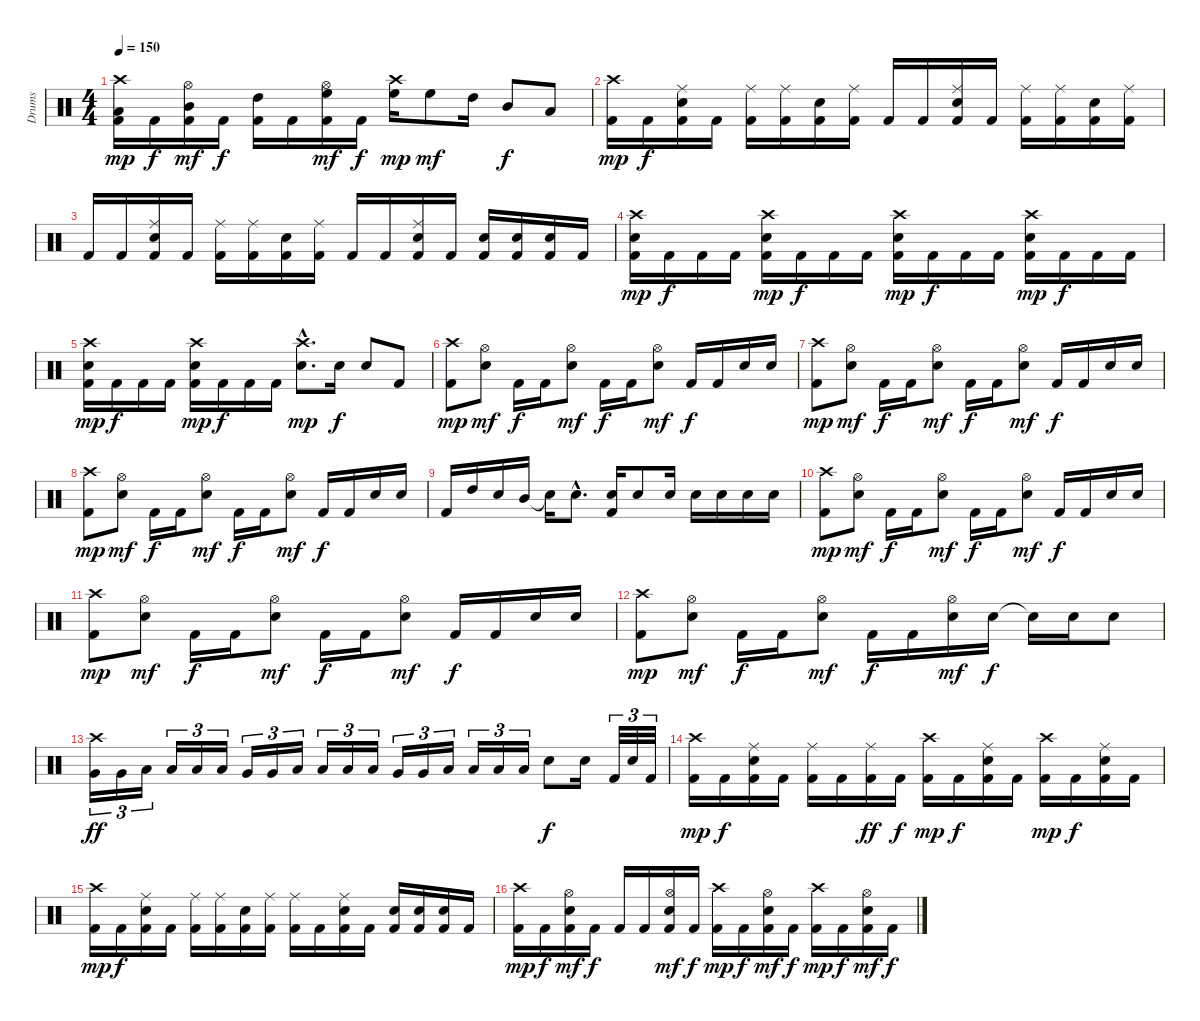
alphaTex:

\track ("Drums" "Drums") {instrument percussion}
\staff {score}
\articulation defaults
\ts (4 4)
\tempo 150
\clef neutral
\ks c
("Crash high (hit)" "Low Tom (hit)" "Kick (hit) 2").16{dy mp} "Kick (hit) 2".16{dy f} ("Hi-Hat (open)" "Mid Tom (hit)" "Kick (hit) 2").16{dy mf} "Kick (hit) 2".16{dy f} ("High Tom (hit)" "Kick (hit) 2").16 "Kick (hit) 2".16 ("Hi-Hat (open)" "High Floor Tom (hit)" "Kick (hit) 2").16{dy mf} "Kick (hit) 2".16{dy f} ("Crash high (hit)" "High Floor Tom (hit)").16{dy mp} "High Floor Tom (hit)".8{dy mf} "High Tom (hit)".16 "Mid Tom (hit)".8{dy f} "Low Tom (hit)".8 |
("Crash high (hit)" "Kick (hit) 2").16{dy mp} "Kick (hit) 2".16{dy f} ("Ride (middle)" "Electric Snare (hit)" "Kick (hit) 2").16 "Kick (hit) 2".16 ("Ride (middle)" "Kick (hit) 2").16 ("Ride (middle)" "Kick (hit) 2").16 ("Electric Snare (hit)" "Kick (hit) 2").16 ("Ride (middle)" "Kick (hit) 2").16 "Kick (hit) 2".16 "Kick (hit) 2".16 ("Ride (middle)" "Electric Snare (hit)" "Kick (hit) 2").16 "Kick (hit) 2".16 ("Ride (middle)" "Kick (hit) 2").16 ("Ride (middle)" "Kick (hit) 2").16 ("Electric Snare (hit)" "Kick (hit) 2").16 ("Ride (middle)" "Kick (hit) 2").16 |
"Kick (hit) 2".16 "Kick (hit) 2".16 ("Ride (middle)" "Electric Snare (hit)" "Kick (hit) 2").16 "Kick (hit) 2".16 ("Ride (middle)" "Kick (hit) 2").16 ("Ride (middle)" "Kick (hit) 2").16 ("Electric Snare (hit)" "Kick (hit) 2").16 ("Ride (middle)" "Kick (hit) 2").16 "Kick (hit) 2".16 "Kick (hit) 2".16 ("Ride (middle)" "Electric Snare (hit)" "Kick (hit) 2").16 "Kick (hit) 2".16 ("Electric Snare (hit)" "Kick (hit) 2").16 ("Electric Snare (hit)" "Kick (hit) 2").16 ("Electric Snare (hit)" "Kick (hit) 2").16 "Kick (hit) 2".16 |
("Crash high (hit)" "Electric Snare (hit)" "Kick (hit) 2").16{dy mp} "Kick (hit) 2".16{dy f} "Kick (hit) 2".16 "Kick (hit) 2".16 ("Crash high (hit)" "Electric Snare (hit)" "Kick (hit) 2").16{dy mp} "Kick (hit) 2".16{dy f} "Kick (hit) 2".16 "Kick (hit) 2".16 ("Crash high (hit)" "Electric Snare (hit)" "Kick (hit) 2").16{dy mp} "Kick (hit) 2".16{dy f} "Kick (hit) 2".16 "Kick (hit) 2".16 ("Crash high (hit)" "Electric Snare (hit)" "Kick (hit) 2").16{dy mp} "Kick (hit) 2".16{dy f} "Kick (hit) 2".16 "Kick (hit) 2".16 |
("Crash high (hit)" "Electric Snare (hit)" "Kick (hit) 2").16{dy mp} "Kick (hit) 2".16{dy f} "Kick (hit) 2".16 "Kick (hit) 2".16 ("Crash high (hit)" "Electric Snare (hit)" "Kick (hit) 2").16{dy mp} "Kick (hit) 2".16{dy f} "Kick (hit) 2".16 "Kick (hit) 2".16 ("Crash high (hit)"{hac} "Electric Snare (hit)"{hac}).8{d dy mp} "Electric Snare (hit)".16{dy f} "Electric Snare (hit)".8 "Kick (hit) 2".8 |
("Crash high (hit)" "Kick (hit) 2").8{dy mp} ("Hi-Hat (open)" "Electric Snare (hit)").8{dy mf} "Kick (hit) 2".16{dy f} "Kick (hit) 2".16 ("Hi-Hat (open)" "Electric Snare (hit)").8{dy mf} "Kick (hit) 2".16{dy f} "Kick (hit) 2".16 ("Hi-Hat (open)" "Electric Snare (hit)").8{dy mf} "Kick (hit) 2".16{dy f} "Kick (hit) 2".16 "Electric Snare (hit)".16 "Electric Snare (hit)".16 |
("Crash high (hit)" "Kick (hit) 2").8{dy mp} ("Hi-Hat (open)" "Electric Snare (hit)").8{dy mf} "Kick (hit) 2".16{dy f} "Kick (hit) 2".16 ("Hi-Hat (open)" "Electric Snare (hit)").8{dy mf} "Kick (hit) 2".16{dy f} "Kick (hit) 2".16 ("Hi-Hat (open)" "Electric Snare (hit)").8{dy mf} "Kick (hit) 2".16{dy f} "Kick (hit) 2".16 "Electric Snare (hit)".16 "Electric Snare (hit)".16 |
("Crash high (hit)" "Kick (hit) 2").8{dy mp} ("Hi-Hat (open)" "Electric Snare (hit)").8{dy mf} "Kick (hit) 2".16{dy f} "Kick (hit) 2".16 ("Hi-Hat (open)" "Electric Snare (hit)").8{dy mf} "Kick (hit) 2".16{dy f} "Kick (hit) 2".16 ("Hi-Hat (open)" "Electric Snare (hit)").8{dy mf} "Kick (hit) 2".16{dy f} "Kick (hit) 2".16 "Electric Snare (hit)".16 "Electric Snare (hit)".16 |
"Kick (hit) 2".16 "High Tom (hit)".16 "Electric Snare (hit)".16 "Mid Tom (hit)".16 "Snare (hit)"{t}.16 "Electric Snare (hit)"{hac}.8{d} ("Electric Snare (hit)" "Kick (hit) 2").16 "Electric Snare (hit)".8 "Electric Snare (hit)".16 "Electric Snare (hit)".16 "Electric Snare (hit)".16 "Electric Snare (hit)".16 "Electric Snare (hit)".16 |
("Crash high (hit)" "Kick (hit) 2").8{dy mp} ("Hi-Hat (open)" "Electric Snare (hit)").8{dy mf} "Kick (hit) 2".16{dy f} "Kick (hit) 2".16 ("Hi-Hat (open)" "Electric Snare (hit)").8{dy mf} "Kick (hit) 2".16{dy f} "Kick (hit) 2".16 ("Hi-Hat (open)" "Electric Snare (hit)").8{dy mf} "Kick (hit) 2".16{dy f} "Kick (hit) 2".16 "Electric Snare (hit)".16 "Electric Snare (hit)".16 |
("Crash high (hit)" "Kick (hit) 2").8{dy mp} ("Hi-Hat (open)" "Electric Snare (hit)").8{dy mf} "Kick (hit) 2".16{dy f} "Kick (hit) 2".16 ("Hi-Hat (open)" "Electric Snare (hit)").8{dy mf} "Kick (hit) 2".16{dy f} "Kick (hit) 2".16 ("Hi-Hat (open)" "Electric Snare (hit)").8{dy mf} "Kick (hit) 2".16{dy f} "Kick (hit) 2".16 "Electric Snare (hit)".16 "Electric Snare (hit)".16 |
("Crash high (hit)" "Kick (hit) 2").8{dy mp} ("Hi-Hat (open)" "Electric Snare (hit)").8{dy mf} "Kick (hit) 2".16{dy f} "Kick (hit) 2".16 ("Hi-Hat (open)" "Electric Snare (hit)").8{dy mf} "Kick (hit) 2".16{dy f} "Kick (hit) 2".16 ("Hi-Hat (open)" "Electric Snare (hit)").16{dy mf} "Electric Snare (hit)".16{dy f} "Snare (hit)"{t}.16 "Electric Snare (hit)".16 "Electric Snare (hit)".8 |
("Crash high (hit)" "Very Low Tom (hit)").16{tu (3 2) dy ff} "Very Low Tom (hit)".16{tu (3 2)} "Low Floor Tom (hit)".16{tu (3 2)} "Low Floor Tom (hit)".16{tu (3 2)} "Low Floor Tom (hit)".16{tu (3 2)} "Low Floor Tom (hit)".16{tu (3 2)} "Very Low Tom (hit)".16{tu (3 2)} "Very Low Tom (hit)".16{tu (3 2)} "Low Floor Tom (hit)".16{tu (3 2)} "Low Floor Tom (hit)".16{tu (3 2)} "Low Floor Tom (hit)".16{tu (3 2)} "Low Floor Tom (hit)".16{tu (3 2)} "Very Low Tom (hit)".16{tu (3 2)} "Very Low Tom (hit)".16{tu (3 2)} "Low Floor Tom (hit)".16{tu (3 2)} "Low Floor Tom (hit)".16{tu (3 2)} "Low Floor Tom (hit)".16{tu (3 2)} "Low Floor Tom (hit)".16{tu (3 2)} "Electric Snare (hit)".8{dy f} "Electric Snare (hit)".16 "Kick (hit) 2".32{tu (3 2)} "Electric Snare (hit)".32{tu (3 2)} "Kick (hit) 2".32{tu (3 2)} |
("Crash high (hit)" "Kick (hit) 2").16{dy mp} "Kick (hit) 2".16{dy f} ("Ride (middle)" "Electric Snare (hit)" "Kick (hit) 2").16 "Kick (hit) 2".16 ("Ride (middle)" "Kick (hit) 2").16 "Kick (hit) 2".16 ("Ride (middle)" "Kick (hit) 2").16{dy ff} "Kick (hit) 2".16{dy f} ("Crash high (hit)" "Kick (hit) 2").16{dy mp} "Kick (hit) 2".16{dy f} ("Ride (middle)" "Electric Snare (hit)" "Kick (hit) 2").16 "Kick (hit) 2".16 ("Crash high (hit)" "Kick (hit) 2").16{dy mp} "Kick (hit) 2".16{dy f} ("Ride (middle)" "Electric Snare (hit)" "Kick (hit) 2").16 "Kick (hit) 2".16 |
("Crash high (hit)" "Kick (hit) 2").16{dy mp} "Kick (hit) 2".16{dy f} ("Ride (middle)" "Electric Snare (hit)" "Kick (hit) 2").16 "Kick (hit) 2".16 ("Ride (middle)" "Kick (hit) 2").16 ("Ride (middle)" "Kick (hit) 2").16 ("Electric Snare (hit)" "Kick (hit) 2").16 ("Ride (middle)" "Kick (hit) 2").16 ("Ride (middle)" "Kick (hit) 2").16 "Kick (hit) 2".16 ("Ride (middle)" "Electric Snare (hit)" "Kick (hit) 2").16 "Kick (hit) 2".16 ("Electric Snare (hit)" "Kick (hit) 2").16 ("Electric Snare (hit)" "Kick (hit) 2").16 ("Electric Snare (hit)" "Kick (hit) 2").16 "Kick (hit) 2".16 |
("Crash high (hit)" "Kick (hit) 2").16{dy mp} "Kick (hit) 2".16{dy f} ("Hi-Hat (open)" "Electric Snare (hit)" "Kick (hit) 2").16{dy mf} "Kick (hit) 2".16{dy f} "Kick (hit) 2".16 "Kick (hit) 2".16 ("Hi-Hat (open)" "Electric Snare (hit)" "Kick (hit) 2").16{dy mf} "Kick (hit) 2".16{dy f} ("Crash high (hit)" "Kick (hit) 2").16{dy mp} "Kick (hit) 2".16{dy f} ("Hi-Hat (open)" "Electric Snare (hit)" "Kick (hit) 2").16{dy mf} "Kick (hit) 2".16{dy f} ("Crash high (hit)" "Kick (hit) 2").16{dy mp} "Kick (hit) 2".16{dy f} ("Hi-Hat (open)" "Electric Snare (hit)" "Kick (hit) 2").16{dy mf} "Kick (hit) 2".16{dy f}
